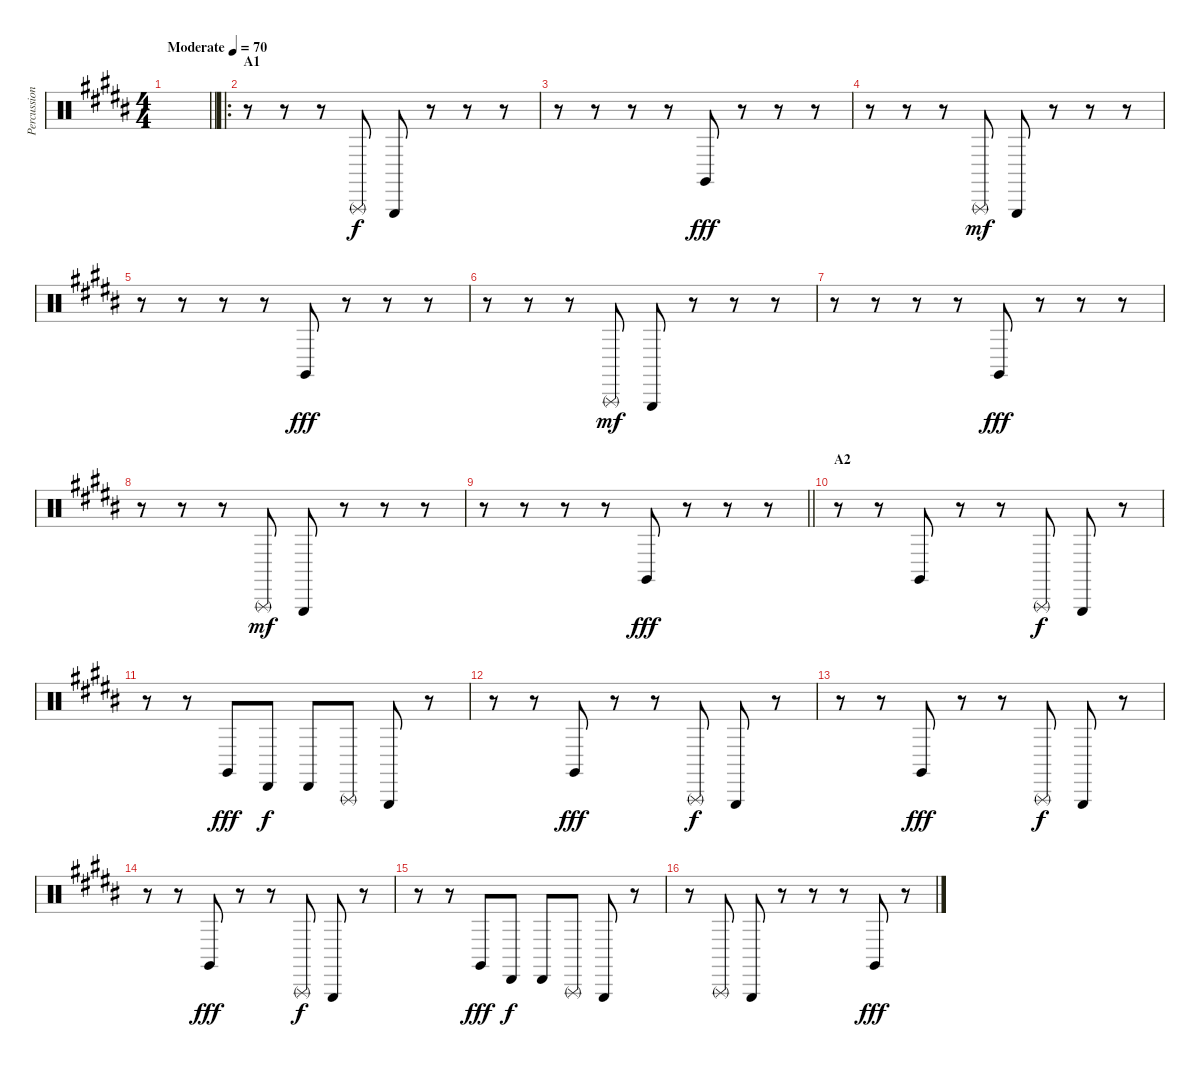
\track ("Percussion" "Percussion") {instrument percussion}
\staff {score}
\articulation defaults
\ts (4 4)
\section ("" "")
\tempo (70 "Moderate")
\clef neutral
\barLineRight lightlight
\ks b
|
\ro
\section ("" "A1")
r.8 r.8 r.8 "Triangle (rnute)".8 "Triangle (hit)".8 r.8 r.8 r.8 |
r.8 r.8 r.8 r.8 "Claves (hit)".8{dy fff} r.8 r.8 r.8 |
r.8 r.8 r.8 "Triangle (rnute)".8{dy mf} "Triangle (hit)".8 r.8 r.8 r.8 |
r.8 r.8 r.8 r.8 "Claves (hit)".8{dy fff} r.8 r.8 r.8 |
r.8 r.8 r.8 "Triangle (rnute)".8{dy mf} "Triangle (hit)".8 r.8 r.8 r.8 |
r.8 r.8 r.8 r.8 "Claves (hit)".8{dy fff} r.8 r.8 r.8 |
r.8 r.8 r.8 "Triangle (rnute)".8{dy mf} "Triangle (hit)".8 r.8 r.8 r.8 |
\barLineRight lightlight
r.8 r.8 r.8 r.8 "Claves (hit)".8{dy fff} r.8 r.8 r.8 |
\section ("" "A2")
r.8 r.8 "Claves (hit)".8 r.8 r.8 "Triangle (rnute)".8{dy f} "Triangle (hit)".8 r.8 |
r.8 r.8 "Claves (hit)".8{dy fff} "Cabasa (hit)".8{dy f} "Cabasa (hit)".8 "Triangle (rnute)".8 "Triangle (hit)".8 r.8 |
r.8 r.8 "Claves (hit)".8{dy fff} r.8 r.8 "Triangle (rnute)".8{dy f} "Triangle (hit)".8 r.8 |
r.8 r.8 "Claves (hit)".8{dy fff} r.8 r.8 "Triangle (rnute)".8{dy f} "Triangle (hit)".8 r.8 |
r.8 r.8 "Claves (hit)".8{dy fff} r.8 r.8 "Triangle (rnute)".8{dy f} "Triangle (hit)".8 r.8 |
r.8 r.8 "Claves (hit)".8{dy fff} "Cabasa (hit)".8{dy f} "Cabasa (hit)".8 "Triangle (rnute)".8 "Triangle (hit)".8 r.8 |
r.8 "Triangle (rnute)".8 "Triangle (hit)".8 r.8 r.8 r.8 "Claves (hit)".8{dy fff} r.8
